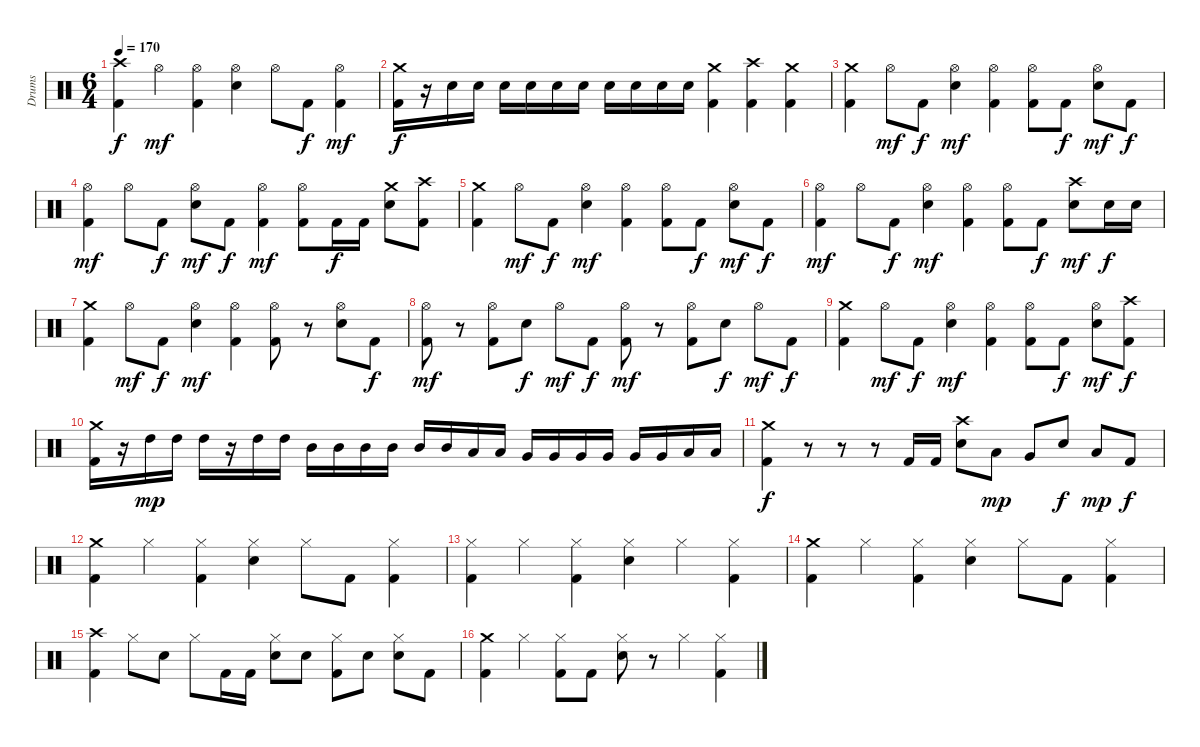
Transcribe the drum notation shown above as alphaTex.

\track ("Drums" "Drums") {instrument percussion}
\staff {score}
\articulation defaults
\ts (6 4)
\tempo 170
\clef neutral
\ks c
("Crash high (hit)" "Kick (hit) 2").4{dy f} "Hi-Hat (open)".4{dy mf} ("Hi-Hat (open)" "Kick (hit) 2").4 ("Hi-Hat (open)" "Electric Snare (hit)").4 "Hi-Hat (open)".8 "Kick (hit) 2".8{dy f} ("Hi-Hat (open)" "Kick (hit) 2").4{dy mf} |
("Crash medium (hit)" "Kick (hit) 2").16{dy f} r.16 "Electric Snare (hit)".16 "Electric Snare (hit)".16 "Electric Snare (hit)".16 "Electric Snare (hit)".16 "Electric Snare (hit)".16 "Electric Snare (hit)".16 "Electric Snare (hit)".16 "Electric Snare (hit)".16 "Electric Snare (hit)".16 "Electric Snare (hit)".16 ("Crash medium (hit)" "Kick (hit) 2").4 ("Crash high (hit)" "Kick (hit) 2").4 ("Crash medium (hit)" "Kick (hit) 2").4 |
("Crash medium (hit)" "Kick (hit) 2").4 "Hi-Hat (open)".8{dy mf} "Kick (hit) 2".8{dy f} ("Hi-Hat (open)" "Electric Snare (hit)").4{dy mf} ("Hi-Hat (open)" "Kick (hit) 2").4 ("Hi-Hat (open)" "Kick (hit) 2").8 "Kick (hit) 2".8{dy f} ("Hi-Hat (open)" "Electric Snare (hit)").8{dy mf} "Kick (hit) 2".8{dy f} |
("Hi-Hat (open)" "Kick (hit) 2").4{dy mf} "Hi-Hat (open)".8 "Kick (hit) 2".8{dy f} ("Hi-Hat (open)" "Electric Snare (hit)").8{dy mf} "Kick (hit) 2".8{dy f} ("Hi-Hat (open)" "Kick (hit) 2").4{dy mf} ("Hi-Hat (open)" "Kick (hit) 2").8 "Kick (hit) 2".16{dy f} "Kick (hit) 2".16 ("Crash medium (hit)" "Electric Snare (hit)").8 ("Crash high (hit)" "Kick (hit) 2").8 |
("Crash medium (hit)" "Kick (hit) 2").4 "Hi-Hat (open)".8{dy mf} "Kick (hit) 2".8{dy f} ("Hi-Hat (open)" "Electric Snare (hit)").4{dy mf} ("Hi-Hat (open)" "Kick (hit) 2").4 ("Hi-Hat (open)" "Kick (hit) 2").8 "Kick (hit) 2".8{dy f} ("Hi-Hat (open)" "Electric Snare (hit)").8{dy mf} "Kick (hit) 2".8{dy f} |
("Hi-Hat (open)" "Kick (hit) 2").4{dy mf} "Hi-Hat (open)".8 "Kick (hit) 2".8{dy f} ("Hi-Hat (open)" "Electric Snare (hit)").4{dy mf} ("Hi-Hat (open)" "Kick (hit) 2").4 ("Hi-Hat (open)" "Kick (hit) 2").8 "Kick (hit) 2".8{dy f} ("Crash high (hit)" "Electric Snare (hit)").8{dy mf} "Electric Snare (hit)".16{dy f} "Electric Snare (hit)".16 |
("Crash medium (hit)" "Kick (hit) 2").4 "Hi-Hat (open)".8{dy mf} "Kick (hit) 2".8{dy f} ("Hi-Hat (open)" "Electric Snare (hit)").4{dy mf} ("Hi-Hat (open)" "Kick (hit) 2").4 ("Hi-Hat (open)" "Kick (hit) 2").8 r.8 ("Hi-Hat (open)" "Electric Snare (hit)").8 "Kick (hit) 2".8{dy f} |
("Hi-Hat (open)" "Kick (hit) 2").8{dy mf} r.8 ("Hi-Hat (open)" "Kick (hit) 2").8 "Electric Snare (hit)".8{dy f} "Hi-Hat (open)".8{dy mf} "Kick (hit) 2".8{dy f} ("Hi-Hat (open)" "Kick (hit) 2").8{dy mf} r.8 ("Hi-Hat (open)" "Kick (hit) 2").8 "Electric Snare (hit)".8{dy f} "Hi-Hat (open)".8{dy mf} "Kick (hit) 2".8{dy f} |
("Crash medium (hit)" "Kick (hit) 2").4 "Hi-Hat (open)".8{dy mf} "Kick (hit) 2".8{dy f} ("Hi-Hat (open)" "Electric Snare (hit)").4{dy mf} ("Hi-Hat (open)" "Kick (hit) 2").4 ("Hi-Hat (open)" "Kick (hit) 2").8 "Kick (hit) 2".8{dy f} ("Hi-Hat (open)" "Electric Snare (hit)").8{dy mf} ("Crash high (hit)" "Kick (hit) 2").8{dy f} |
("Crash medium (hit)" "Kick (hit) 2").16 r.16 "High Tom (hit)".16{dy mp} "High Tom (hit)".16 "High Tom (hit)".16 r.16 "High Tom (hit)".16 "High Tom (hit)".16 "Mid Tom (hit)".16 "Mid Tom (hit)".16 "Mid Tom (hit)".16 "Mid Tom (hit)".16 "Mid Tom (hit)".16 "Mid Tom (hit)".16 "Low Tom (hit)".16 "Low Tom (hit)".16 "Very Low Tom (hit)".16 "Very Low Tom (hit)".16 "Very Low Tom (hit)".16 "Very Low Tom (hit)".16 "Very Low Tom (hit)".16 "Very Low Tom (hit)".16 "Low Floor Tom (hit)".16 "Low Floor Tom (hit)".16 |
("Crash medium (hit)" "Kick (hit) 2").4{dy f} r.8 r.8 r.8 "Kick (hit) 2".16 "Kick (hit) 2".16 ("Crash high (hit)" "Electric Snare (hit)").8 "Low Tom (hit)".8{dy mp} "Very Low Tom (hit)".8 "Electric Snare (hit)".8{dy f} "Low Floor Tom (hit)".8{dy mp} "Kick (hit) 2".8{dy f} |
("Crash medium (hit)" "Kick (hit) 2").4 "Hi-Hat (closed)".4 ("Hi-Hat (closed)" "Kick (hit) 2").4 ("Hi-Hat (closed)" "Electric Snare (hit)").4 "Hi-Hat (closed)".8 "Kick (hit) 2".8 ("Hi-Hat (closed)" "Kick (hit) 2").4 |
("Hi-Hat (closed)" "Kick (hit) 2").4 "Hi-Hat (closed)".4 ("Hi-Hat (closed)" "Kick (hit) 2").4 ("Hi-Hat (closed)" "Electric Snare (hit)").4 "Hi-Hat (closed)".4 ("Hi-Hat (closed)" "Kick (hit) 2").4 |
("Crash medium (hit)" "Kick (hit) 2").4 "Hi-Hat (closed)".4 ("Hi-Hat (closed)" "Kick (hit) 2").4 ("Hi-Hat (closed)" "Electric Snare (hit)").4 "Hi-Hat (closed)".8 "Kick (hit) 2".8 ("Hi-Hat (closed)" "Kick (hit) 2").4 |
("Crash high (hit)" "Kick (hit) 2").4 "Hi-Hat (closed)".8 "Electric Snare (hit)".8 "Hi-Hat (closed)".8 "Kick (hit) 2".16 "Kick (hit) 2".16 ("Hi-Hat (closed)" "Electric Snare (hit)").8 "Electric Snare (hit)".8 ("Hi-Hat (closed)" "Kick (hit) 2").8 "Electric Snare (hit)".8 ("Hi-Hat (closed)" "Electric Snare (hit)").8 "Kick (hit) 2".8 |
("Crash medium (hit)" "Kick (hit) 2").4 "Hi-Hat (closed)".4 ("Hi-Hat (closed)" "Kick (hit) 2").8 "Kick (hit) 2".8 ("Hi-Hat (closed)" "Electric Snare (hit)").8 r.8 "Hi-Hat (closed)".4 ("Hi-Hat (closed)" "Kick (hit) 2").4
